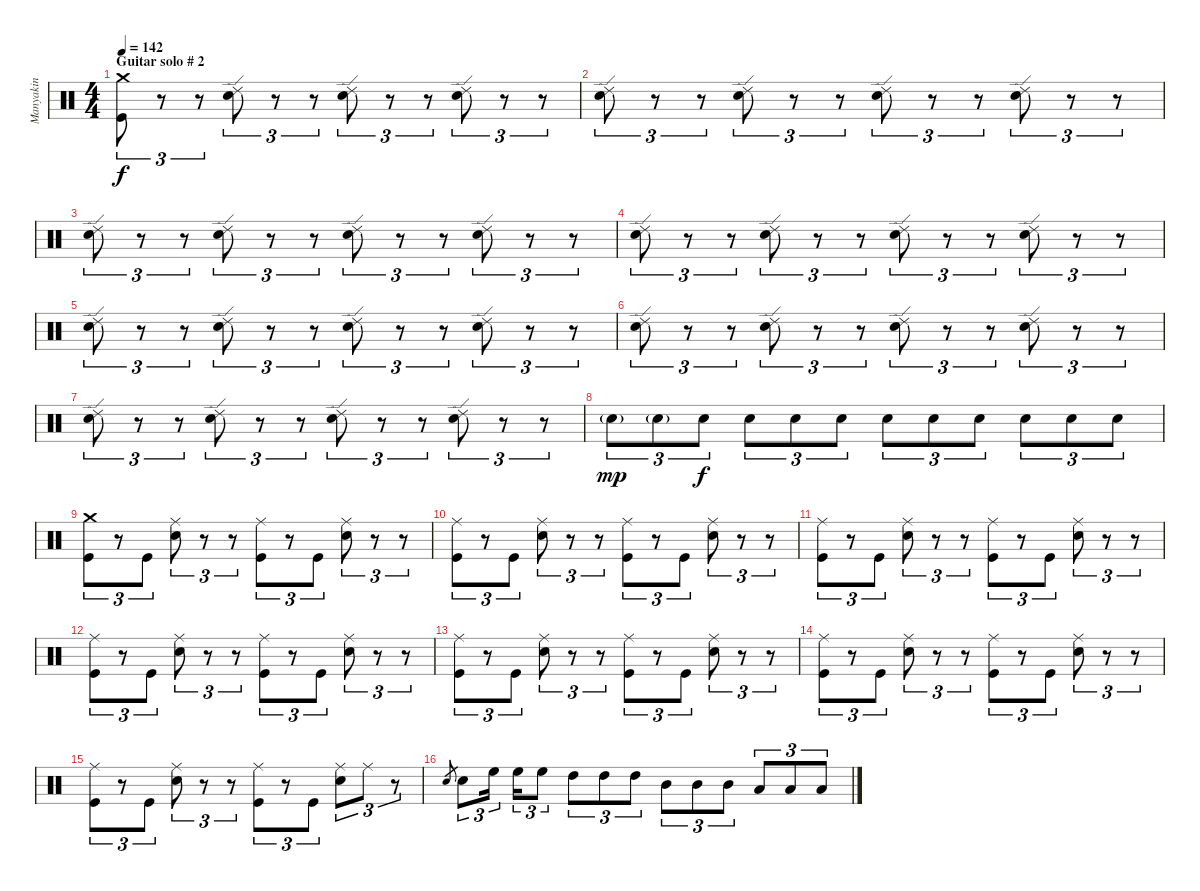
\track ("Manyakin" "Manyakin") {instrument percussion}
\staff {score}
\articulation defaults
\ts (4 4)
\section ("" "Guitar solo # 2")
\tempo 142
\clef neutral
\ks c
("Kick (hit)" "Crash medium (hit)").8{tu (3 2) dy f} r.8{tu (3 2)} r.8{tu (3 2)} ("Electric Snare (hit)" "Ride (edge) 2").8{tu (3 2)} r.8{tu (3 2)} r.8{tu (3 2)} ("Electric Snare (hit)" "Ride (edge) 2").8{tu (3 2)} r.8{tu (3 2)} r.8{tu (3 2)} ("Electric Snare (hit)" "Ride (edge) 2").8{tu (3 2)} r.8{tu (3 2)} r.8{tu (3 2)} |
("Electric Snare (hit)" "Ride (edge) 2").8{tu (3 2)} r.8{tu (3 2)} r.8{tu (3 2)} ("Electric Snare (hit)" "Ride (edge) 2").8{tu (3 2)} r.8{tu (3 2)} r.8{tu (3 2)} ("Electric Snare (hit)" "Ride (edge) 2").8{tu (3 2)} r.8{tu (3 2)} r.8{tu (3 2)} ("Electric Snare (hit)" "Ride (edge) 2").8{tu (3 2)} r.8{tu (3 2)} r.8{tu (3 2)} |
("Electric Snare (hit)" "Ride (edge) 2").8{tu (3 2)} r.8{tu (3 2)} r.8{tu (3 2)} ("Electric Snare (hit)" "Ride (edge) 2").8{tu (3 2)} r.8{tu (3 2)} r.8{tu (3 2)} ("Electric Snare (hit)" "Ride (edge) 2").8{tu (3 2)} r.8{tu (3 2)} r.8{tu (3 2)} ("Electric Snare (hit)" "Ride (edge) 2").8{tu (3 2)} r.8{tu (3 2)} r.8{tu (3 2)} |
("Electric Snare (hit)" "Ride (edge) 2").8{tu (3 2)} r.8{tu (3 2)} r.8{tu (3 2)} ("Electric Snare (hit)" "Ride (edge) 2").8{tu (3 2)} r.8{tu (3 2)} r.8{tu (3 2)} ("Electric Snare (hit)" "Ride (edge) 2").8{tu (3 2)} r.8{tu (3 2)} r.8{tu (3 2)} ("Electric Snare (hit)" "Ride (edge) 2").8{tu (3 2)} r.8{tu (3 2)} r.8{tu (3 2)} |
("Electric Snare (hit)" "Ride (edge) 2").8{tu (3 2)} r.8{tu (3 2)} r.8{tu (3 2)} ("Electric Snare (hit)" "Ride (edge) 2").8{tu (3 2)} r.8{tu (3 2)} r.8{tu (3 2)} ("Electric Snare (hit)" "Ride (edge) 2").8{tu (3 2)} r.8{tu (3 2)} r.8{tu (3 2)} ("Electric Snare (hit)" "Ride (edge) 2").8{tu (3 2)} r.8{tu (3 2)} r.8{tu (3 2)} |
("Electric Snare (hit)" "Ride (edge) 2").8{tu (3 2)} r.8{tu (3 2)} r.8{tu (3 2)} ("Electric Snare (hit)" "Ride (edge) 2").8{tu (3 2)} r.8{tu (3 2)} r.8{tu (3 2)} ("Electric Snare (hit)" "Ride (edge) 2").8{tu (3 2)} r.8{tu (3 2)} r.8{tu (3 2)} ("Electric Snare (hit)" "Ride (edge) 2").8{tu (3 2)} r.8{tu (3 2)} r.8{tu (3 2)} |
("Electric Snare (hit)" "Ride (edge) 2").8{tu (3 2)} r.8{tu (3 2)} r.8{tu (3 2)} ("Electric Snare (hit)" "Ride (edge) 2").8{tu (3 2)} r.8{tu (3 2)} r.8{tu (3 2)} ("Electric Snare (hit)" "Ride (edge) 2").8{tu (3 2)} r.8{tu (3 2)} r.8{tu (3 2)} ("Electric Snare (hit)" "Ride (edge) 2").8{tu (3 2)} r.8{tu (3 2)} r.8{tu (3 2)} |
"Electric Snare (hit)"{g}.8{tu (3 2) dy mp} "Electric Snare (hit)"{g}.8{tu (3 2)} "Electric Snare (hit)".8{tu (3 2) dy f} "Electric Snare (hit)".8{tu (3 2)} "Electric Snare (hit)".8{tu (3 2)} "Electric Snare (hit)".8{tu (3 2)} "Electric Snare (hit)".8{tu (3 2)} "Electric Snare (hit)".8{tu (3 2)} "Electric Snare (hit)".8{tu (3 2)} "Electric Snare (hit)".8{tu (3 2)} "Electric Snare (hit)".8{tu (3 2)} "Electric Snare (hit)".8{tu (3 2)} |
("Kick (hit)" "Crash medium (hit)").8{tu (3 2)} r.8{tu (3 2)} "Kick (hit)".8{tu (3 2)} ("Electric Snare (hit)" "Ride (middle)").8{tu (3 2)} r.8{tu (3 2)} r.8{tu (3 2)} ("Kick (hit)" "Ride (middle)").8{tu (3 2)} r.8{tu (3 2)} "Kick (hit)".8{tu (3 2)} ("Electric Snare (hit)" "Ride (middle)").8{tu (3 2)} r.8{tu (3 2)} r.8{tu (3 2)} |
("Kick (hit)" "Ride (middle)").8{tu (3 2)} r.8{tu (3 2)} "Kick (hit)".8{tu (3 2)} ("Electric Snare (hit)" "Ride (middle)").8{tu (3 2)} r.8{tu (3 2)} r.8{tu (3 2)} ("Kick (hit)" "Ride (middle)").8{tu (3 2)} r.8{tu (3 2)} "Kick (hit)".8{tu (3 2)} ("Electric Snare (hit)" "Ride (middle)").8{tu (3 2)} r.8{tu (3 2)} r.8{tu (3 2)} |
("Kick (hit)" "Ride (middle)").8{tu (3 2)} r.8{tu (3 2)} "Kick (hit)".8{tu (3 2)} ("Electric Snare (hit)" "Ride (middle)").8{tu (3 2)} r.8{tu (3 2)} r.8{tu (3 2)} ("Kick (hit)" "Ride (middle)").8{tu (3 2)} r.8{tu (3 2)} "Kick (hit)".8{tu (3 2)} ("Electric Snare (hit)" "Ride (middle)").8{tu (3 2)} r.8{tu (3 2)} r.8{tu (3 2)} |
("Kick (hit)" "Ride (middle)").8{tu (3 2)} r.8{tu (3 2)} "Kick (hit)".8{tu (3 2)} ("Electric Snare (hit)" "Ride (middle)").8{tu (3 2)} r.8{tu (3 2)} r.8{tu (3 2)} ("Kick (hit)" "Ride (middle)").8{tu (3 2)} r.8{tu (3 2)} "Kick (hit)".8{tu (3 2)} ("Electric Snare (hit)" "Ride (middle)").8{tu (3 2)} r.8{tu (3 2)} r.8{tu (3 2)} |
("Kick (hit)" "Ride (middle)").8{tu (3 2)} r.8{tu (3 2)} "Kick (hit)".8{tu (3 2)} ("Electric Snare (hit)" "Ride (middle)").8{tu (3 2)} r.8{tu (3 2)} r.8{tu (3 2)} ("Kick (hit)" "Ride (middle)").8{tu (3 2)} r.8{tu (3 2)} "Kick (hit)".8{tu (3 2)} ("Electric Snare (hit)" "Ride (middle)").8{tu (3 2)} r.8{tu (3 2)} r.8{tu (3 2)} |
("Kick (hit)" "Ride (middle)").8{tu (3 2)} r.8{tu (3 2)} "Kick (hit)".8{tu (3 2)} ("Electric Snare (hit)" "Ride (middle)").8{tu (3 2)} r.8{tu (3 2)} r.8{tu (3 2)} ("Kick (hit)" "Ride (middle)").8{tu (3 2)} r.8{tu (3 2)} "Kick (hit)".8{tu (3 2)} ("Electric Snare (hit)" "Ride (middle)").8{tu (3 2)} r.8{tu (3 2)} r.8{tu (3 2)} |
("Kick (hit)" "Ride (middle)").8{tu (3 2)} r.8{tu (3 2)} "Kick (hit)".8{tu (3 2)} ("Electric Snare (hit)" "Ride (middle)").8{tu (3 2)} r.8{tu (3 2)} r.8{tu (3 2)} ("Kick (hit)" "Ride (middle)").8{tu (3 2)} r.8{tu (3 2)} "Kick (hit)".8{tu (3 2)} ("Electric Snare (hit)" "Ride (middle)").8{tu (3 2)} "Ride (middle)".8{tu (3 2)} r.8{tu (3 2)} |
"Electric Snare (hit)".8{gr} "Electric Snare (hit)".8{tu (3 2)} "High Floor Tom (hit)".16{tu (3 2)} "High Floor Tom (hit)".16{tu (3 2)} "High Floor Tom (hit)".8{tu (3 2)} "High Tom (hit)".8{tu (3 2)} "High Tom (hit)".8{tu (3 2)} "High Tom (hit)".8{tu (3 2)} "Mid Tom (hit)".8{tu (3 2)} "Mid Tom (hit)".8{tu (3 2)} "Mid Tom (hit)".8{tu (3 2)} "Low Tom (hit)".8{tu (3 2)} "Low Tom (hit)".8{tu (3 2)} "Low Tom (hit)".8{tu (3 2)}
